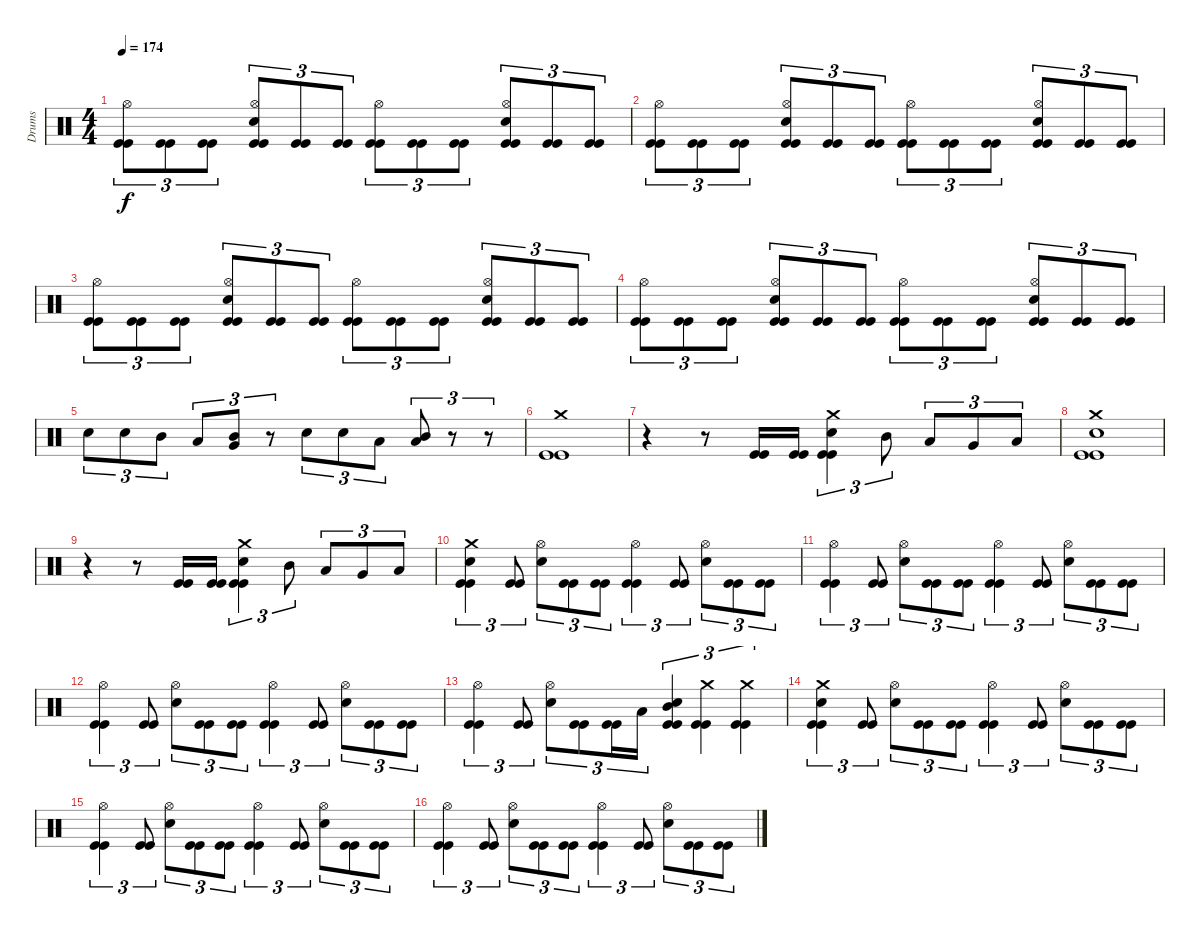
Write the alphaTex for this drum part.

\track ("Drums" "Drums") {instrument percussion}
\staff {score}
\articulation defaults
\ts (4 4)
\tempo 174
\clef neutral
\ks c
("Kick (hit)" "Kick (hit)" "Hi-Hat (open)").8{tu (3 2) dy f} ("Kick (hit)" "Kick (hit)").8{tu (3 2)} ("Kick (hit)" "Kick (hit)").8{tu (3 2)} ("Kick (hit)" "Kick (hit)" "Snare (hit) 2" "Hi-Hat (open)").8{tu (3 2)} ("Kick (hit)" "Kick (hit)").8{tu (3 2)} ("Kick (hit)" "Kick (hit)").8{tu (3 2)} ("Kick (hit)" "Kick (hit)" "Hi-Hat (open)").8{tu (3 2)} ("Kick (hit)" "Kick (hit)").8{tu (3 2)} ("Kick (hit)" "Kick (hit)").8{tu (3 2)} ("Kick (hit)" "Kick (hit)" "Snare (hit) 2" "Hi-Hat (open)").8{tu (3 2)} ("Kick (hit)" "Kick (hit)").8{tu (3 2)} ("Kick (hit)" "Kick (hit)").8{tu (3 2)} |
("Kick (hit)" "Kick (hit)" "Hi-Hat (open)").8{tu (3 2)} ("Kick (hit)" "Kick (hit)").8{tu (3 2)} ("Kick (hit)" "Kick (hit)").8{tu (3 2)} ("Kick (hit)" "Kick (hit)" "Snare (hit) 2" "Hi-Hat (open)").8{tu (3 2)} ("Kick (hit)" "Kick (hit)").8{tu (3 2)} ("Kick (hit)" "Kick (hit)").8{tu (3 2)} ("Kick (hit)" "Kick (hit)" "Hi-Hat (open)").8{tu (3 2)} ("Kick (hit)" "Kick (hit)").8{tu (3 2)} ("Kick (hit)" "Kick (hit)").8{tu (3 2)} ("Kick (hit)" "Kick (hit)" "Snare (hit) 2" "Hi-Hat (open)").8{tu (3 2)} ("Kick (hit)" "Kick (hit)").8{tu (3 2)} ("Kick (hit)" "Kick (hit)").8{tu (3 2)} |
("Kick (hit)" "Kick (hit)" "Hi-Hat (open)").8{tu (3 2)} ("Kick (hit)" "Kick (hit)").8{tu (3 2)} ("Kick (hit)" "Kick (hit)").8{tu (3 2)} ("Kick (hit)" "Kick (hit)" "Snare (hit) 2" "Hi-Hat (open)").8{tu (3 2)} ("Kick (hit)" "Kick (hit)").8{tu (3 2)} ("Kick (hit)" "Kick (hit)").8{tu (3 2)} ("Kick (hit)" "Kick (hit)" "Hi-Hat (open)").8{tu (3 2)} ("Kick (hit)" "Kick (hit)").8{tu (3 2)} ("Kick (hit)" "Kick (hit)").8{tu (3 2)} ("Kick (hit)" "Kick (hit)" "Snare (hit) 2" "Hi-Hat (open)").8{tu (3 2)} ("Kick (hit)" "Kick (hit)").8{tu (3 2)} ("Kick (hit)" "Kick (hit)").8{tu (3 2)} |
("Kick (hit)" "Kick (hit)" "Hi-Hat (open)").8{tu (3 2)} ("Kick (hit)" "Kick (hit)").8{tu (3 2)} ("Kick (hit)" "Kick (hit)").8{tu (3 2)} ("Kick (hit)" "Kick (hit)" "Snare (hit) 2" "Hi-Hat (open)").8{tu (3 2)} ("Kick (hit)" "Kick (hit)").8{tu (3 2)} ("Kick (hit)" "Kick (hit)").8{tu (3 2)} ("Kick (hit)" "Kick (hit)" "Hi-Hat (open)").8{tu (3 2)} ("Kick (hit)" "Kick (hit)").8{tu (3 2)} ("Kick (hit)" "Kick (hit)").8{tu (3 2)} ("Kick (hit)" "Kick (hit)" "Snare (hit) 2" "Hi-Hat (open)").8{tu (3 2)} ("Kick (hit)" "Kick (hit)").8{tu (3 2)} ("Kick (hit)" "Kick (hit)").8{tu (3 2)} |
"Snare (hit) 2".8{tu (3 2)} "Snare (hit) 2".8{tu (3 2)} "Mid Tom (hit)".8{tu (3 2)} "Low Tom (hit)".8{tu (3 2)} ("Very Low Tom (hit)" "Mid Tom (hit)").8{tu (3 2)} r.8{tu (3 2)} "Snare (hit) 2".8{tu (3 2)} "Snare (hit) 2".8{tu (3 2)} "Low Tom (hit)".8{tu (3 2)} ("Low Floor Tom (hit)" "Mid Tom (hit)").8{tu (3 2)} r.8{tu (3 2)} r.8{tu (3 2)} |
("Crash medium (hit)" "Kick (hit)" "Kick (hit)").1 |
r.4 r.8 ("Kick (hit)" "Kick (hit)").16 ("Kick (hit)" "Kick (hit)").16 ("Kick (hit)" "Kick (hit)" "Snare (hit) 2" "Crash medium (hit)").4{tu (3 2)} "Mid Tom (hit)".8{tu (3 2)} "Low Tom (hit)".8{tu (3 2)} "Very Low Tom (hit)".8{tu (3 2)} "Low Floor Tom (hit)".8{tu (3 2)} |
("Kick (hit)" "Kick (hit)" "Snare (hit) 2" "Crash medium (hit)").1 |
r.4 r.8 ("Kick (hit)" "Kick (hit)").16 ("Kick (hit)" "Kick (hit)").16 ("Kick (hit)" "Kick (hit)" "Snare (hit) 2" "Crash medium (hit)").4{tu (3 2)} "Mid Tom (hit)".8{tu (3 2)} "Low Tom (hit)".8{tu (3 2)} "Very Low Tom (hit)".8{tu (3 2)} "Low Floor Tom (hit)".8{tu (3 2)} |
("Kick (hit)" "Kick (hit)" "Snare (hit) 2" "Crash medium (hit)").4{tu (3 2)} ("Kick (hit)" "Kick (hit)").8{tu (3 2)} ("Snare (hit) 2" "Hi-Hat (open)").8{tu (3 2)} ("Kick (hit)" "Kick (hit)").8{tu (3 2)} ("Kick (hit)" "Kick (hit)").8{tu (3 2)} ("Kick (hit)" "Kick (hit)" "Hi-Hat (open)").4{tu (3 2)} ("Kick (hit)" "Kick (hit)").8{tu (3 2)} ("Snare (hit) 2" "Hi-Hat (open)").8{tu (3 2)} ("Kick (hit)" "Kick (hit)").8{tu (3 2)} ("Kick (hit)" "Kick (hit)").8{tu (3 2)} |
("Kick (hit)" "Kick (hit)" "Hi-Hat (open)").4{tu (3 2)} ("Kick (hit)" "Kick (hit)").8{tu (3 2)} ("Snare (hit) 2" "Hi-Hat (open)").8{tu (3 2)} ("Kick (hit)" "Kick (hit)").8{tu (3 2)} ("Kick (hit)" "Kick (hit)").8{tu (3 2)} ("Kick (hit)" "Kick (hit)" "Hi-Hat (open)").4{tu (3 2)} ("Kick (hit)" "Kick (hit)").8{tu (3 2)} ("Snare (hit) 2" "Hi-Hat (open)").8{tu (3 2)} ("Kick (hit)" "Kick (hit)").8{tu (3 2)} ("Kick (hit)" "Kick (hit)").8{tu (3 2)} |
("Kick (hit)" "Kick (hit)" "Hi-Hat (open)").4{tu (3 2)} ("Kick (hit)" "Kick (hit)").8{tu (3 2)} ("Snare (hit) 2" "Hi-Hat (open)").8{tu (3 2)} ("Kick (hit)" "Kick (hit)").8{tu (3 2)} ("Kick (hit)" "Kick (hit)").8{tu (3 2)} ("Kick (hit)" "Kick (hit)" "Hi-Hat (open)").4{tu (3 2)} ("Kick (hit)" "Kick (hit)").8{tu (3 2)} ("Snare (hit) 2" "Hi-Hat (open)").8{tu (3 2)} ("Kick (hit)" "Kick (hit)").8{tu (3 2)} ("Kick (hit)" "Kick (hit)").8{tu (3 2)} |
("Kick (hit)" "Kick (hit)" "Hi-Hat (open)").4{tu (3 2)} ("Kick (hit)" "Kick (hit)").8{tu (3 2)} ("Snare (hit) 2" "Hi-Hat (open)").8{tu (3 2)} ("Kick (hit)" "Kick (hit)").8{tu (3 2)} ("Kick (hit)" "Kick (hit)").16{tu (3 2)} "Low Floor Tom (hit)".16{tu (3 2)} ("Kick (hit)" "Kick (hit)" "Mid Tom (hit)" "Snare (hit) 2").4{tu (3 2)} ("Kick (hit)" "Kick (hit)" "Crash medium (hit)").4{tu (3 2)} ("Kick (hit)" "Kick (hit)" "Crash medium (hit)").4{tu (3 2)} |
("Kick (hit)" "Kick (hit)" "Snare (hit) 2" "Crash medium (hit)").4{tu (3 2)} ("Kick (hit)" "Kick (hit)").8{tu (3 2)} ("Snare (hit) 2" "Hi-Hat (open)").8{tu (3 2)} ("Kick (hit)" "Kick (hit)").8{tu (3 2)} ("Kick (hit)" "Kick (hit)").8{tu (3 2)} ("Kick (hit)" "Kick (hit)" "Hi-Hat (open)").4{tu (3 2)} ("Kick (hit)" "Kick (hit)").8{tu (3 2)} ("Snare (hit) 2" "Hi-Hat (open)").8{tu (3 2)} ("Kick (hit)" "Kick (hit)").8{tu (3 2)} ("Kick (hit)" "Kick (hit)").8{tu (3 2)} |
("Kick (hit)" "Kick (hit)" "Hi-Hat (open)").4{tu (3 2)} ("Kick (hit)" "Kick (hit)").8{tu (3 2)} ("Snare (hit) 2" "Hi-Hat (open)").8{tu (3 2)} ("Kick (hit)" "Kick (hit)").8{tu (3 2)} ("Kick (hit)" "Kick (hit)").8{tu (3 2)} ("Kick (hit)" "Kick (hit)" "Hi-Hat (open)").4{tu (3 2)} ("Kick (hit)" "Kick (hit)").8{tu (3 2)} ("Snare (hit) 2" "Hi-Hat (open)").8{tu (3 2)} ("Kick (hit)" "Kick (hit)").8{tu (3 2)} ("Kick (hit)" "Kick (hit)").8{tu (3 2)} |
("Kick (hit)" "Kick (hit)" "Hi-Hat (open)").4{tu (3 2)} ("Kick (hit)" "Kick (hit)").8{tu (3 2)} ("Snare (hit) 2" "Hi-Hat (open)").8{tu (3 2)} ("Kick (hit)" "Kick (hit)").8{tu (3 2)} ("Kick (hit)" "Kick (hit)").8{tu (3 2)} ("Kick (hit)" "Kick (hit)" "Hi-Hat (open)").4{tu (3 2)} ("Kick (hit)" "Kick (hit)").8{tu (3 2)} ("Snare (hit) 2" "Hi-Hat (open)").8{tu (3 2)} ("Kick (hit)" "Kick (hit)").8{tu (3 2)} ("Kick (hit)" "Kick (hit)").8{tu (3 2)}
